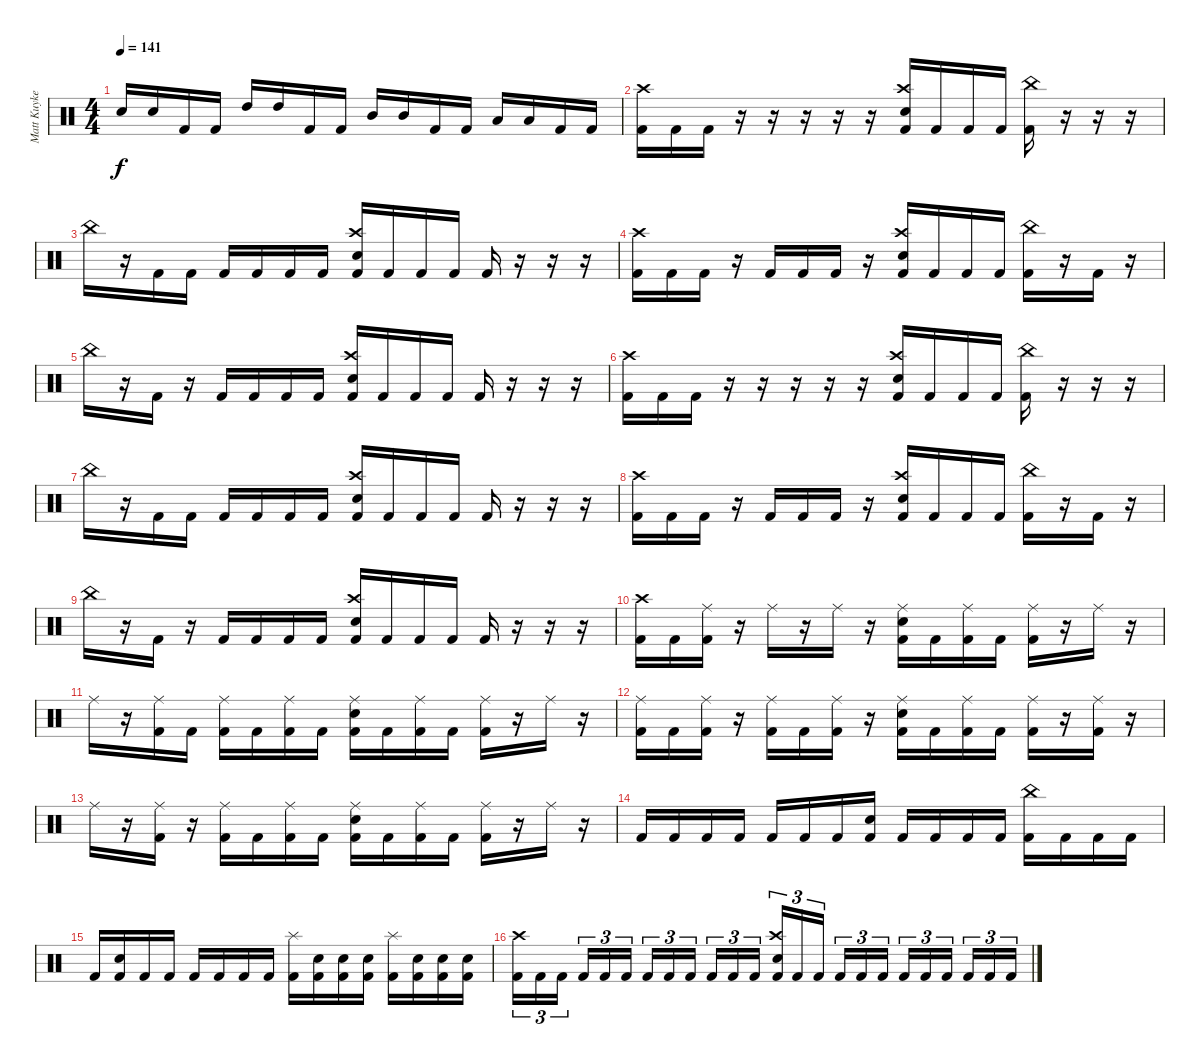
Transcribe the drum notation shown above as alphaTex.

\track ("Matt Kuykendall" "Matt Kuyke") {instrument percussion}
\staff {score}
\articulation defaults
\ts (4 4)
\tempo 141
\clef neutral
\ks c "Snare (hit) 2".16{dy f} "Snare (hit) 2".16 "Kick (hit) 2".16 "Kick (hit) 2".16 "High Tom (hit)".16 "High Tom (hit)".16 "Kick (hit) 2".16 "Kick (hit) 2".16 "Mid Tom (hit)".16 "Mid Tom (hit)".16 "Kick (hit) 2".16 "Kick (hit) 2".16 "Low Tom (hit)".16 "Low Tom (hit)".16 "Kick (hit) 2".16 "Kick (hit) 2".16
|
("Crash high (hit)" "Kick (hit) 2").16 "Kick (hit) 2".16 "Kick (hit) 2".16 r.16 r.16 r.16 r.16 r.16 ("Crash high (hit)" "Electric Snare (hit)" "Kick (hit) 2").16 "Kick (hit) 2".16 "Kick (hit) 2".16 "Kick (hit) 2".16 ("China (hit)" "Kick (hit) 2").16 r.16 r.16 r.16 |
"China (hit)".16 r.16 "Kick (hit) 2".16 "Kick (hit) 2".16 "Kick (hit) 2".16 "Kick (hit) 2".16 "Kick (hit) 2".16 "Kick (hit) 2".16 ("Crash high (hit)" "Electric Snare (hit)" "Kick (hit) 2").16 "Kick (hit) 2".16 "Kick (hit) 2".16 "Kick (hit) 2".16 "Kick (hit) 2".16 r.16 r.16 r.16 |
("Crash high (hit)" "Kick (hit) 2").16 "Kick (hit) 2".16 "Kick (hit) 2".16 r.16 "Kick (hit) 2".16 "Kick (hit) 2".16 "Kick (hit) 2".16 r.16 ("Crash high (hit)" "Electric Snare (hit)" "Kick (hit) 2").16 "Kick (hit) 2".16 "Kick (hit) 2".16 "Kick (hit) 2".16 ("China (hit)" "Kick (hit) 2").16 r.16 "Kick (hit) 2".16 r.16 |
"China (hit)".16 r.16 "Kick (hit) 2".16 r.16 "Kick (hit) 2".16 "Kick (hit) 2".16 "Kick (hit) 2".16 "Kick (hit) 2".16 ("Crash high (hit)" "Electric Snare (hit)" "Kick (hit) 2").16 "Kick (hit) 2".16 "Kick (hit) 2".16 "Kick (hit) 2".16 "Kick (hit) 2".16 r.16 r.16 r.16 |
("Crash high (hit)" "Kick (hit) 2").16 "Kick (hit) 2".16 "Kick (hit) 2".16 r.16 r.16 r.16 r.16 r.16 ("Crash high (hit)" "Electric Snare (hit)" "Kick (hit) 2").16 "Kick (hit) 2".16 "Kick (hit) 2".16 "Kick (hit) 2".16 ("China (hit)" "Kick (hit) 2").16 r.16 r.16 r.16 |
"China (hit)".16 r.16 "Kick (hit) 2".16 "Kick (hit) 2".16 "Kick (hit) 2".16 "Kick (hit) 2".16 "Kick (hit) 2".16 "Kick (hit) 2".16 ("Crash high (hit)" "Electric Snare (hit)" "Kick (hit) 2").16 "Kick (hit) 2".16 "Kick (hit) 2".16 "Kick (hit) 2".16 "Kick (hit) 2".16 r.16 r.16 r.16 |
("Crash high (hit)" "Kick (hit) 2").16 "Kick (hit) 2".16 "Kick (hit) 2".16 r.16 "Kick (hit) 2".16 "Kick (hit) 2".16 "Kick (hit) 2".16 r.16 ("Crash high (hit)" "Electric Snare (hit)" "Kick (hit) 2").16 "Kick (hit) 2".16 "Kick (hit) 2".16 "Kick (hit) 2".16 ("China (hit)" "Kick (hit) 2").16 r.16 "Kick (hit) 2".16 r.16 |
"China (hit)".16 r.16 "Kick (hit) 2".16 r.16 "Kick (hit) 2".16 "Kick (hit) 2".16 "Kick (hit) 2".16 "Kick (hit) 2".16 ("Crash high (hit)" "Electric Snare (hit)" "Kick (hit) 2").16 "Kick (hit) 2".16 "Kick (hit) 2".16 "Kick (hit) 2".16 "Kick (hit) 2".16 r.16 r.16 r.16 |
("Crash high (hit)" "Kick (hit) 2").16 "Kick (hit) 2".16 ("Ride (middle)" "Kick (hit) 2").16 r.16 "Ride (middle)".16 r.16 "Ride (middle)".16 r.16 ("Ride (middle)" "Electric Snare (hit)" "Kick (hit) 2").16 "Kick (hit) 2".16 ("Ride (middle)" "Kick (hit) 2").16 "Kick (hit) 2".16 ("Ride (middle)" "Kick (hit) 2").16 r.16 "Ride (middle)".16 r.16 |
"Ride (middle)".16 r.16 ("Ride (middle)" "Kick (hit) 2").16 "Kick (hit) 2".16 ("Ride (middle)" "Kick (hit) 2").16 "Kick (hit) 2".16 ("Ride (middle)" "Kick (hit) 2").16 "Kick (hit) 2".16 ("Ride (middle)" "Electric Snare (hit)" "Kick (hit) 2").16 "Kick (hit) 2".16 ("Ride (middle)" "Kick (hit) 2").16 "Kick (hit) 2".16 ("Ride (middle)" "Kick (hit) 2").16 r.16 "Ride (middle)".16 r.16 |
("Ride (middle)" "Kick (hit) 2").16 "Kick (hit) 2".16 ("Ride (middle)" "Kick (hit) 2").16 r.16 ("Ride (middle)" "Kick (hit) 2").16 "Kick (hit) 2".16 ("Ride (middle)" "Kick (hit) 2").16 r.16 ("Ride (middle)" "Electric Snare (hit)" "Kick (hit) 2").16 "Kick (hit) 2".16 ("Ride (middle)" "Kick (hit) 2").16 "Kick (hit) 2".16 ("Ride (middle)" "Kick (hit) 2").16 r.16 ("Ride (middle)" "Kick (hit) 2").16 r.16 |
"Ride (middle)".16 r.16 ("Ride (middle)" "Kick (hit) 2").16 r.16 ("Ride (middle)" "Kick (hit) 2").16 "Kick (hit) 2".16 ("Ride (middle)" "Kick (hit) 2").16 "Kick (hit) 2".16 ("Ride (middle)" "Electric Snare (hit)" "Kick (hit) 2").16 "Kick (hit) 2".16 ("Ride (middle)" "Kick (hit) 2").16 "Kick (hit) 2".16 ("Ride (middle)" "Kick (hit) 2").16 r.16 "Ride (middle)".16 r.16 |
"Kick (hit) 2".16 "Kick (hit) 2".16 "Kick (hit) 2".16 "Kick (hit) 2".16 "Kick (hit) 2".16 "Kick (hit) 2".16 "Kick (hit) 2".16 ("Electric Snare (hit)" "Kick (hit) 2").16 "Kick (hit) 2".16 "Kick (hit) 2".16 "Kick (hit) 2".16 "Kick (hit) 2".16 ("China (hit)" "Kick (hit) 2").16 "Kick (hit) 2".16 "Kick (hit) 2".16 "Kick (hit) 2".16 |
"Kick (hit) 2".16 ("Electric Snare (hit)" "Kick (hit) 2").16 "Kick (hit) 2".16 "Kick (hit) 2".16 "Kick (hit) 2".16 "Kick (hit) 2".16 "Kick (hit) 2".16 "Kick (hit) 2".16 ("Splash (hit)" "Kick (hit) 2").16 ("Electric Snare (hit)" "Kick (hit) 2").16 ("Electric Snare (hit)" "Kick (hit) 2").16 ("Electric Snare (hit)" "Kick (hit) 2").16 ("Splash (hit)" "Kick (hit) 2").16 ("Electric Snare (hit)" "Kick (hit) 2").16 ("Electric Snare (hit)" "Kick (hit) 2").16 ("Electric Snare (hit)" "Kick (hit) 2").16 |
("Crash high (hit)" "Kick (hit) 2").16{tu (3 2)} "Kick (hit) 2".16{tu (3 2)} "Kick (hit) 2".16{tu (3 2) beam splitsecondary} "Kick (hit) 2".16{tu (3 2)} "Kick (hit) 2".16{tu (3 2)} "Kick (hit) 2".16{tu (3 2)} "Kick (hit) 2".16{tu (3 2)} "Kick (hit) 2".16{tu (3 2)} "Kick (hit) 2".16{tu (3 2) beam splitsecondary} "Kick (hit) 2".16{tu (3 2)} "Kick (hit) 2".16{tu (3 2)} "Kick (hit) 2".16{tu (3 2)} ("Crash high (hit)" "Electric Snare (hit)" "Kick (hit) 2").16{tu (3 2)} "Kick (hit) 2".16{tu (3 2)} "Kick (hit) 2".16{tu (3 2) beam splitsecondary} "Kick (hit) 2".16{tu (3 2)} "Kick (hit) 2".16{tu (3 2)} "Kick (hit) 2".16{tu (3 2)} "Kick (hit) 2".16{tu (3 2)} "Kick (hit) 2".16{tu (3 2)} "Kick (hit) 2".16{tu (3 2) beam splitsecondary} "Kick (hit) 2".16{tu (3 2)} "Kick (hit) 2".16{tu (3 2)} "Kick (hit) 2".16{tu (3 2)}
